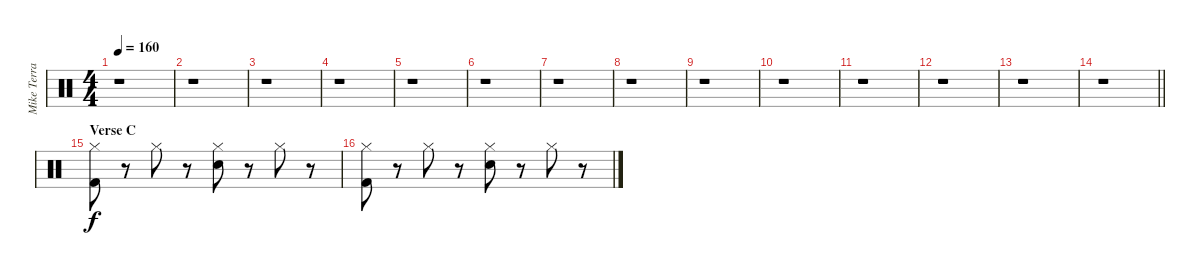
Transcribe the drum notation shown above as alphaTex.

\track ("Mike Terrana" "Mike Terra") {instrument percussion}
\staff {score}
\articulation defaults
\ts (4 4)
\tempo 160
\clef neutral
\ks c
r.1{dy f} |
r.1 |
r.1 |
r.1 |
r.1 |
r.1 |
r.1 |
r.1 |
r.1 |
r.1 |
r.1 |
r.1 |
r.1 |
\barLineRight lightlight
r.1 |
\section ("" "Verse C")
("Hi-Hat (closed)" "Kick (hit) 2").8 r.8 "Hi-Hat (closed)".8 r.8 ("Hi-Hat (closed)" "Snare (hit) 2").8 r.8 "Hi-Hat (closed)".8 r.8 |
("Hi-Hat (closed)" "Kick (hit) 2").8 r.8 "Hi-Hat (closed)".8 r.8 ("Hi-Hat (closed)" "Snare (hit) 2").8 r.8 "Hi-Hat (closed)".8 r.8
